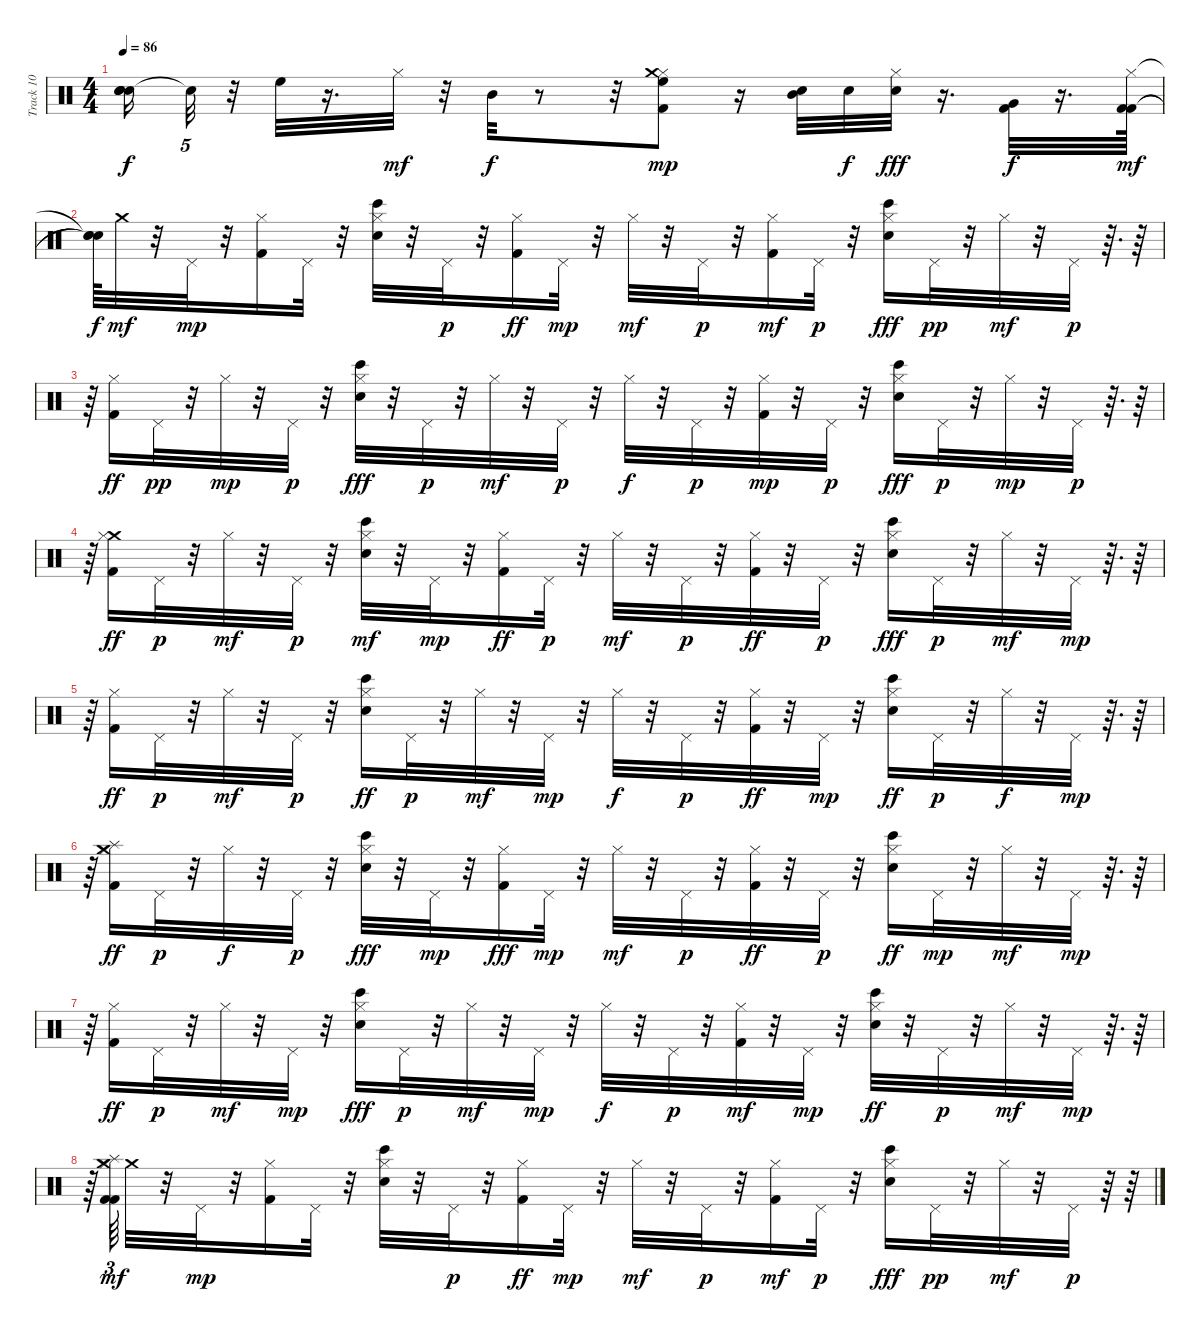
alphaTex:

\track ("Track 10" "Track 10") {instrument percussion}
\staff {score}
\articulation defaults
\ts (4 4)
\tempo 86
\clef neutral
\ks c
("Snare (hit)"{t} "Snare (hit)"{t} "Snare (hit)"{t} "Snare (hit)"{t}).16{dy f} "Snare (hit)"{t}.32{tu (5 4)} r.32 "High Floor Tom (hit)".32 r.16{d} "Hi-Hat (closed)".32{dy mf} r.32 "Mid Tom (hit)".32{dy f} r.8 r.32 ("Hi-Hat (closed)" "High Floor Tom (hit)" "Kick (hit) 2" "Crash medium (hit)").8{dy mp} r.16 ("Electric Snare (hit)" "Mid Tom (hit)").32 "Electric Snare (hit)".32{dy f} ("Hi-Hat (closed)" "Electric Snare (hit)").32{dy fff} r.16{d} ("Very Low Tom (hit)" "Kick (hit) 2").32{dy f} r.16{d} ("Hi-Hat (closed)" "Kick (hit) 2" "Kick (hit) 2").64{dy mf} |
("Snare (hit)"{t} "Snare (hit)"{t} "Snare (hit)"{t}).64{dy f} "Crash medium (hit)".32{dy mf} r.32 "Pedal Hi-Hat (hit)".32{dy mp} r.32 ("Hi-Hat (closed)" "Kick (hit) 2").16 "Pedal Hi-Hat (hit)".32 r.32 ("Hi-Hat (closed)" "Electric Snare (hit)" "Bongo High (hit)").32 r.32 "Pedal Hi-Hat (hit)".32{dy p} r.32 ("Hi-Hat (closed)" "Kick (hit) 2").16{dy ff} "Pedal Hi-Hat (hit)".32{dy mp} r.32 "Hi-Hat (closed)".32{dy mf} r.32 "Pedal Hi-Hat (hit)".32{dy p} r.32 ("Hi-Hat (closed)" "Kick (hit) 2").16{dy mf} "Pedal Hi-Hat (hit)".32{dy p} r.32 ("Hi-Hat (closed)" "Electric Snare (hit)" "Bongo High (hit)").16{dy fff} "Pedal Hi-Hat (hit)".32{dy pp} r.32 "Hi-Hat (closed)".32{dy mf} r.32 "Pedal Hi-Hat (hit)".32{dy p} r.64{d} r.64 |
r.64 ("Hi-Hat (closed)" "Kick (hit) 2").16{dy ff} "Pedal Hi-Hat (hit)".32{dy pp} r.32 "Hi-Hat (closed)".32{dy mp} r.32 "Pedal Hi-Hat (hit)".32{dy p} r.32 ("Hi-Hat (closed)" "Electric Snare (hit)" "Bongo High (hit)").32{dy fff} r.32 "Pedal Hi-Hat (hit)".32{dy p} r.32 "Hi-Hat (closed)".32{dy mf} r.32 "Pedal Hi-Hat (hit)".32{dy p} r.32 "Hi-Hat (closed)".32{dy f} r.32 "Pedal Hi-Hat (hit)".32{dy p} r.32 ("Hi-Hat (closed)" "Kick (hit) 2").32{dy mp} r.32 "Pedal Hi-Hat (hit)".32{dy p} r.32 ("Hi-Hat (closed)" "Electric Snare (hit)" "Bongo High (hit)").16{dy fff} "Pedal Hi-Hat (hit)".32{dy p} r.32 "Hi-Hat (closed)".32{dy mp} r.32 "Pedal Hi-Hat (hit)".32{dy p} r.64{d} r.64 |
r.64 ("Crash medium (hit)" "Hi-Hat (closed)" "Kick (hit) 2").16{dy ff} "Pedal Hi-Hat (hit)".32{dy p} r.32 "Hi-Hat (closed)".32{dy mf} r.32 "Pedal Hi-Hat (hit)".32{dy p} r.32 ("Hi-Hat (closed)" "Electric Snare (hit)" "Bongo High (hit)").32{dy mf} r.32 "Pedal Hi-Hat (hit)".32{dy mp} r.32 ("Hi-Hat (closed)" "Kick (hit) 2").16{dy ff} "Pedal Hi-Hat (hit)".32{dy p} r.32 "Hi-Hat (closed)".32{dy mf} r.32 "Pedal Hi-Hat (hit)".32{dy p} r.32 ("Hi-Hat (closed)" "Kick (hit) 2").32{dy ff} r.32 "Pedal Hi-Hat (hit)".32{dy p} r.32 ("Hi-Hat (closed)" "Electric Snare (hit)" "Bongo High (hit)").16{dy fff} "Pedal Hi-Hat (hit)".32{dy p} r.32 "Hi-Hat (closed)".32{dy mf} r.32 "Pedal Hi-Hat (hit)".32{dy mp} r.64{d} r.64 |
r.64 ("Hi-Hat (closed)" "Kick (hit) 2").16{dy ff} "Pedal Hi-Hat (hit)".32{dy p} r.32 "Hi-Hat (closed)".32{dy mf} r.32 "Pedal Hi-Hat (hit)".32{dy p} r.32 ("Hi-Hat (closed)" "Electric Snare (hit)" "Bongo High (hit)").16{dy ff} "Pedal Hi-Hat (hit)".32{dy p} r.32 "Hi-Hat (closed)".32{dy mf} r.32 "Pedal Hi-Hat (hit)".32{dy mp} r.32 "Hi-Hat (closed)".32{dy f} r.32 "Pedal Hi-Hat (hit)".32{dy p} r.32 ("Hi-Hat (closed)" "Kick (hit) 2").32{dy ff} r.32 "Pedal Hi-Hat (hit)".32{dy mp} r.32 ("Hi-Hat (closed)" "Electric Snare (hit)" "Bongo High (hit)").16{dy ff} "Pedal Hi-Hat (hit)".32{dy p} r.32 "Hi-Hat (closed)".32{dy f} r.32 "Pedal Hi-Hat (hit)".32{dy mp} r.64{d} r.64 |
r.64 ("Splash (hit)" "Crash medium (hit)" "Hi-Hat (closed)" "Kick (hit) 2").16{dy ff} "Pedal Hi-Hat (hit)".32{dy p} r.32 "Hi-Hat (closed)".32{dy f} r.32 "Pedal Hi-Hat (hit)".32{dy p} r.32 ("Hi-Hat (closed)" "Bongo High (hit)" "Electric Snare (hit)").32{dy fff} r.32 "Pedal Hi-Hat (hit)".32{dy mp} r.32 ("Hi-Hat (closed)" "Kick (hit) 2").16{dy fff} "Pedal Hi-Hat (hit)".32{dy mp} r.32 "Hi-Hat (closed)".32{dy mf} r.32 "Pedal Hi-Hat (hit)".32{dy p} r.32 ("Hi-Hat (closed)" "Kick (hit) 2").32{dy ff} r.32 "Pedal Hi-Hat (hit)".32{dy p} r.32 ("Hi-Hat (closed)" "Bongo High (hit)" "Electric Snare (hit)").16{dy ff} "Pedal Hi-Hat (hit)".32{dy mp} r.32 "Hi-Hat (closed)".32{dy mf} r.32 "Pedal Hi-Hat (hit)".32{dy mp} r.64{d} r.64 |
r.64 ("Hi-Hat (closed)" "Kick (hit) 2").16{dy ff} "Pedal Hi-Hat (hit)".32{dy p} r.32 "Hi-Hat (closed)".32{dy mf} r.32 "Pedal Hi-Hat (hit)".32{dy mp} r.32 ("Hi-Hat (closed)" "Bongo High (hit)" "Electric Snare (hit)").16{dy fff} "Pedal Hi-Hat (hit)".32{dy p} r.32 "Hi-Hat (closed)".32{dy mf} r.32 "Pedal Hi-Hat (hit)".32{dy mp} r.32 "Hi-Hat (closed)".32{dy f} r.32 "Pedal Hi-Hat (hit)".32{dy p} r.32 ("Hi-Hat (closed)" "Kick (hit) 2").32{dy mf} r.32 "Pedal Hi-Hat (hit)".32{dy mp} r.32 ("Hi-Hat (closed)" "Electric Snare (hit)" "Bongo High (hit)").32{dy ff} r.32 "Pedal Hi-Hat (hit)".32{dy p} r.32 "Hi-Hat (closed)".32{dy mf} r.32 "Pedal Hi-Hat (hit)".32{dy mp} r.64{d} r.64 |
r.64 ("Splash (hit)" "Crash medium (hit)" "Hi-Hat (closed)" "Kick (hit) 2" "Kick (hit) 2").64{tu (3 2) dy mf} "Crash medium (hit)".32 r.32 "Pedal Hi-Hat (hit)".32{dy mp} r.32 ("Hi-Hat (closed)" "Kick (hit) 2").16 "Pedal Hi-Hat (hit)".32 r.32 ("Hi-Hat (closed)" "Electric Snare (hit)" "Bongo High (hit)").32 r.32 "Pedal Hi-Hat (hit)".32{dy p} r.32 ("Hi-Hat (closed)" "Kick (hit) 2").16{dy ff} "Pedal Hi-Hat (hit)".32{dy mp} r.32 "Hi-Hat (closed)".32{dy mf} r.32 "Pedal Hi-Hat (hit)".32{dy p} r.32 ("Hi-Hat (closed)" "Kick (hit) 2").16{dy mf} "Pedal Hi-Hat (hit)".32{dy p} r.32 ("Hi-Hat (closed)" "Electric Snare (hit)" "Bongo High (hit)").16{dy fff} "Pedal Hi-Hat (hit)".32{dy pp} r.32 "Hi-Hat (closed)".32{dy mf} r.32 "Pedal Hi-Hat (hit)".32{dy p} r.64 r.64
